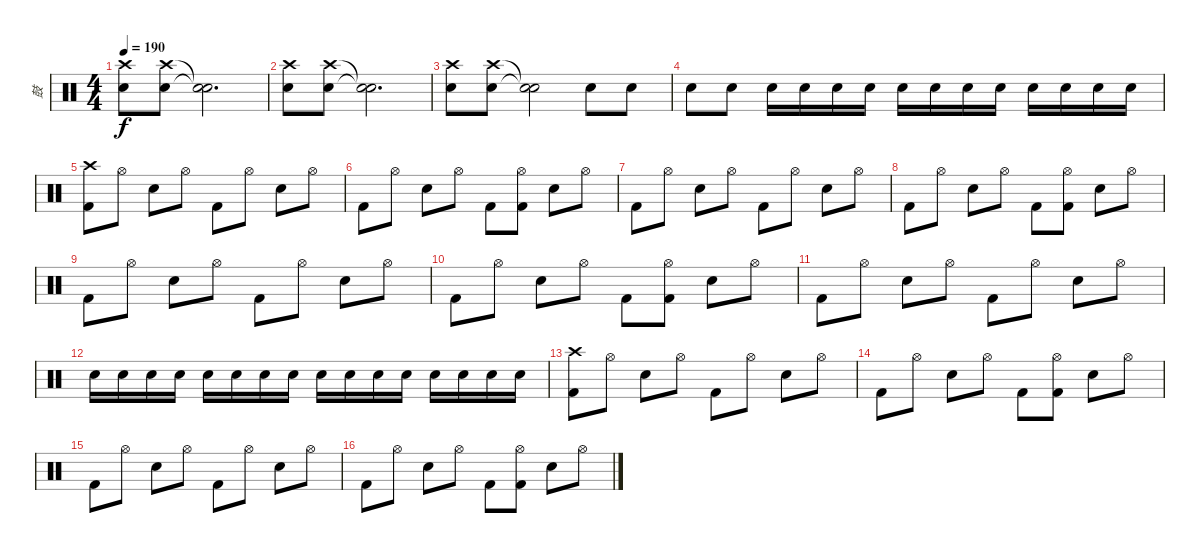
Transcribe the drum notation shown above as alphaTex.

\track ("鼓" "鼓") {instrument percussion}
\staff {score}
\articulation defaults
\ts (4 4)
\tempo 190
\clef neutral
\ks c
("Crash high (hit)" "Snare (hit) 2").8{dy f} ("Crash high (hit)" "Snare (hit) 2").8 ("Snare (hit)"{t} "Snare (hit)"{t}).2{d} |
("Crash high (hit)" "Snare (hit) 2").8 ("Crash high (hit)" "Snare (hit) 2").8 ("Snare (hit)"{t} "Snare (hit)"{t}).2{d} |
("Crash high (hit)" "Snare (hit) 2").8 ("Crash high (hit)" "Snare (hit) 2").8 ("Snare (hit)"{t} "Snare (hit)"{t}).2 "Snare (hit) 2".8 "Snare (hit) 2".8 |
"Snare (hit) 2".8 "Snare (hit) 2".8 "Snare (hit) 2".16 "Snare (hit) 2".16 "Snare (hit) 2".16 "Snare (hit) 2".16 "Snare (hit) 2".16 "Snare (hit) 2".16 "Snare (hit) 2".16 "Snare (hit) 2".16 "Snare (hit) 2".16 "Snare (hit) 2".16 "Snare (hit) 2".16 "Snare (hit) 2".16 |
("Crash high (hit)" "Kick (hit) 2").8 "Hi-Hat (open)".8 "Snare (hit) 2".8 "Hi-Hat (open)".8 "Kick (hit) 2".8 "Hi-Hat (open)".8 "Snare (hit) 2".8 "Hi-Hat (open)".8 |
"Kick (hit) 2".8 "Hi-Hat (open)".8 "Snare (hit) 2".8 "Hi-Hat (open)".8 "Kick (hit) 2".8 ("Hi-Hat (open)" "Kick (hit) 2").8 "Snare (hit) 2".8 "Hi-Hat (open)".8 |
"Kick (hit) 2".8 "Hi-Hat (open)".8 "Snare (hit) 2".8 "Hi-Hat (open)".8 "Kick (hit) 2".8 "Hi-Hat (open)".8 "Snare (hit) 2".8 "Hi-Hat (open)".8 |
"Kick (hit) 2".8 "Hi-Hat (open)".8 "Snare (hit) 2".8 "Hi-Hat (open)".8 "Kick (hit) 2".8 ("Hi-Hat (open)" "Kick (hit) 2").8 "Snare (hit) 2".8 "Hi-Hat (open)".8 |
"Kick (hit) 2".8 "Hi-Hat (open)".8 "Snare (hit) 2".8 "Hi-Hat (open)".8 "Kick (hit) 2".8 "Hi-Hat (open)".8 "Snare (hit) 2".8 "Hi-Hat (open)".8 |
"Kick (hit) 2".8 "Hi-Hat (open)".8 "Snare (hit) 2".8 "Hi-Hat (open)".8 "Kick (hit) 2".8 ("Hi-Hat (open)" "Kick (hit) 2").8 "Snare (hit) 2".8 "Hi-Hat (open)".8 |
"Kick (hit) 2".8 "Hi-Hat (open)".8 "Snare (hit) 2".8 "Hi-Hat (open)".8 "Kick (hit) 2".8 "Hi-Hat (open)".8 "Snare (hit) 2".8 "Hi-Hat (open)".8 |
"Snare (hit) 2".16 "Snare (hit) 2".16 "Snare (hit) 2".16 "Snare (hit) 2".16 "Snare (hit) 2".16 "Snare (hit) 2".16 "Snare (hit) 2".16 "Snare (hit) 2".16 "Snare (hit) 2".16 "Snare (hit) 2".16 "Snare (hit) 2".16 "Snare (hit) 2".16 "Snare (hit) 2".16 "Snare (hit) 2".16 "Snare (hit) 2".16 "Snare (hit) 2".16 |
("Crash high (hit)" "Kick (hit) 2").8 "Hi-Hat (open)".8 "Snare (hit) 2".8 "Hi-Hat (open)".8 "Kick (hit) 2".8 "Hi-Hat (open)".8 "Snare (hit) 2".8 "Hi-Hat (open)".8 |
"Kick (hit) 2".8 "Hi-Hat (open)".8 "Snare (hit) 2".8 "Hi-Hat (open)".8 "Kick (hit) 2".8 ("Hi-Hat (open)" "Kick (hit) 2").8 "Snare (hit) 2".8 "Hi-Hat (open)".8 |
"Kick (hit) 2".8 "Hi-Hat (open)".8 "Snare (hit) 2".8 "Hi-Hat (open)".8 "Kick (hit) 2".8 "Hi-Hat (open)".8 "Snare (hit) 2".8 "Hi-Hat (open)".8 |
"Kick (hit) 2".8 "Hi-Hat (open)".8 "Snare (hit) 2".8 "Hi-Hat (open)".8 "Kick (hit) 2".8 ("Hi-Hat (open)" "Kick (hit) 2").8 "Snare (hit) 2".8 "Hi-Hat (open)".8
